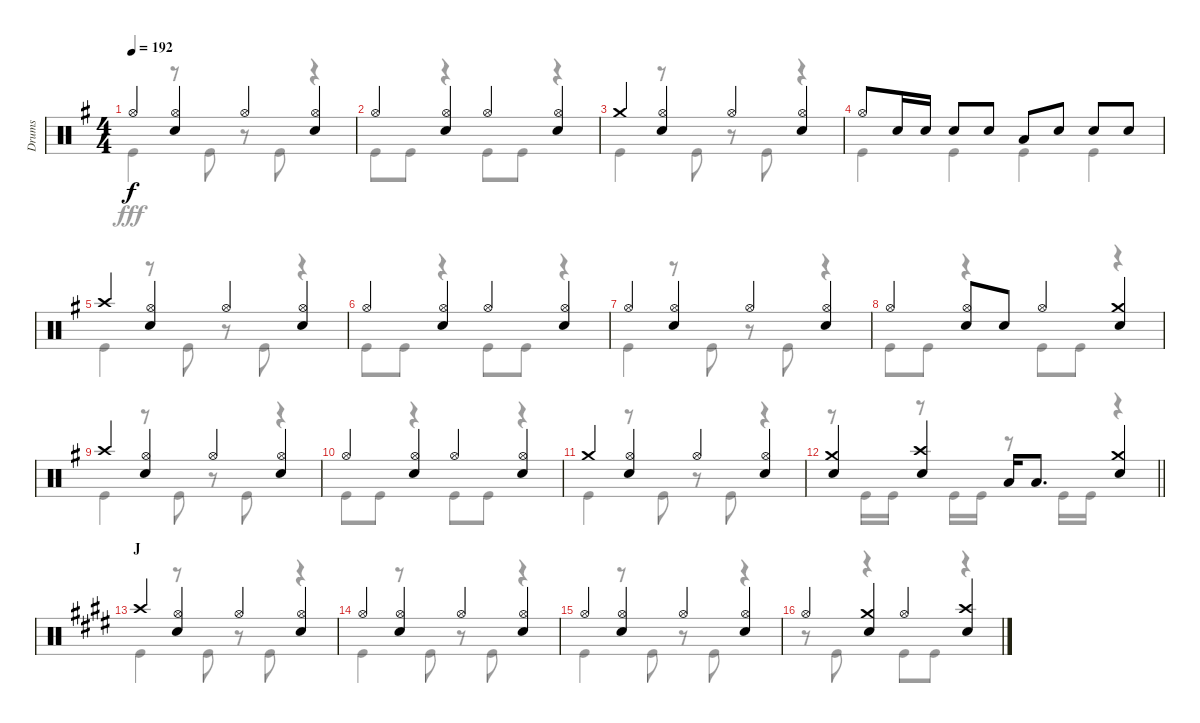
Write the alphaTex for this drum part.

\track ("Drums" "Drums") {instrument percussion}
\staff {score}
\articulation defaults
\voice
\ts (4 4)
\tempo 192
\clef neutral
\ks g "Hi-Hat (open)".4{dy f}
("Hi-Hat (open)" "Snare (hit) 2").4 "Hi-Hat (open)".4 ("Hi-Hat (open)" "Snare (hit) 2").4 |
"Hi-Hat (open)".4 ("Hi-Hat (open)" "Snare (hit) 2").4 "Hi-Hat (open)".4 ("Hi-Hat (open)" "Snare (hit) 2").4 |
"Crash medium (hit)".4 ("Hi-Hat (open)" "Snare (hit) 2").4 "Hi-Hat (open)".4 ("Hi-Hat (open)" "Snare (hit) 2").4 |
"Hi-Hat (open)".8 "Snare (hit) 2".16 "Snare (hit) 2".16 "Snare (hit) 2".8 "Snare (hit) 2".8 "Low Tom (hit)".8 "Snare (hit) 2".8 "Snare (hit) 2".8 "Snare (hit) 2".8 |
"Crash high (hit)".4 ("Hi-Hat (open)" "Snare (hit) 2").4 "Hi-Hat (open)".4 ("Hi-Hat (open)" "Snare (hit) 2").4 |
"Hi-Hat (open)".4 ("Hi-Hat (open)" "Snare (hit) 2").4 "Hi-Hat (open)".4 ("Hi-Hat (open)" "Snare (hit) 2").4 |
"Hi-Hat (open)".4 ("Hi-Hat (open)" "Snare (hit) 2").4 "Hi-Hat (open)".4 ("Hi-Hat (open)" "Snare (hit) 2").4 |
"Hi-Hat (open)".4 ("Hi-Hat (open)" "Snare (hit) 2").8 "Snare (hit) 2".8 "Hi-Hat (open)".4 ("Crash medium (hit)" "Snare (hit) 2").4 |
"Crash high (hit)".4 ("Hi-Hat (open)" "Snare (hit) 2").4 "Hi-Hat (open)".4 ("Hi-Hat (open)" "Snare (hit) 2").4 |
"Hi-Hat (open)".4 ("Hi-Hat (open)" "Snare (hit) 2").4 "Hi-Hat (open)".4 ("Hi-Hat (open)" "Snare (hit) 2").4 |
"Crash medium (hit)".4 ("Hi-Hat (open)" "Snare (hit) 2").4 "Hi-Hat (open)".4 ("Hi-Hat (open)" "Snare (hit) 2").4 |
\barLineRight lightlight
("Crash medium (hit)" "Snare (hit) 2").4 ("Crash high (hit)" "Snare (hit) 2").4 "Low Tom (hit)".16 "Low Tom (hit)".8{d} ("Crash medium (hit)" "Snare (hit) 2").4 |
\section ("" "J")
\ks e "Crash high (hit)".4
("Hi-Hat (open)" "Snare (hit) 2").4 "Hi-Hat (open)".4 ("Hi-Hat (open)" "Snare (hit) 2").4 |
"Hi-Hat (open)".4 ("Hi-Hat (open)" "Snare (hit) 2").4 "Hi-Hat (open)".4 ("Hi-Hat (open)" "Snare (hit) 2").4 |
"Hi-Hat (open)".4 ("Hi-Hat (open)" "Snare (hit) 2").4 "Hi-Hat (open)".4 ("Hi-Hat (open)" "Snare (hit) 2").4 |
"Hi-Hat (open)".4 ("Crash medium (hit)" "Snare (hit) 2").4 "Hi-Hat (open)".4 ("Crash high (hit)" "Snare (hit) 2").4
\voice
\clef neutral
\ottava regular
\simile none
\ks g "Kick (hit)".4{dy fff}
r.8 "Kick (hit)".8 r.8 "Kick (hit)".8 r.4 |
"Kick (hit)".8 "Kick (hit)".8 r.4 "Kick (hit)".8 "Kick (hit)".8 r.4 |
"Kick (hit)".4 r.8 "Kick (hit)".8 r.8 "Kick (hit)".8 r.4 |
"Kick (hit)".4 "Kick (hit)".4 "Kick (hit)".4 "Kick (hit)".4 |
"Kick (hit)".4 r.8 "Kick (hit)".8 r.8 "Kick (hit)".8 r.4 |
"Kick (hit)".8 "Kick (hit)".8 r.4 "Kick (hit)".8 "Kick (hit)".8 r.4 |
"Kick (hit)".4 r.8 "Kick (hit)".8 r.8 "Kick (hit)".8 r.4 |
"Kick (hit)".8 "Kick (hit)".8 r.4 "Kick (hit)".8 "Kick (hit)".8 r.4 |
"Kick (hit)".4 r.8 "Kick (hit)".8 r.8 "Kick (hit)".8 r.4 |
"Kick (hit)".8 "Kick (hit)".8 r.4 "Kick (hit)".8 "Kick (hit)".8 r.4 |
"Kick (hit)".4 r.8 "Kick (hit)".8 r.8 "Kick (hit)".8 r.4 |
\barLineRight lightlight
r.8 "Kick (hit)".16 "Kick (hit)".16 r.8 "Kick (hit)".16 "Kick (hit)".16 r.8 "Kick (hit)".16 "Kick (hit)".16 r.4 |
\ks e "Kick (hit)".4
r.8 "Kick (hit)".8 r.8 "Kick (hit)".8 r.4 |
"Kick (hit)".4 r.8 "Kick (hit)".8 r.8 "Kick (hit)".8 r.4 |
"Kick (hit)".4 r.8 "Kick (hit)".8 r.8 "Kick (hit)".8 r.4 |
r.8 "Kick (hit)".8 r.4 "Kick (hit)".8 "Kick (hit)".8 r.4
